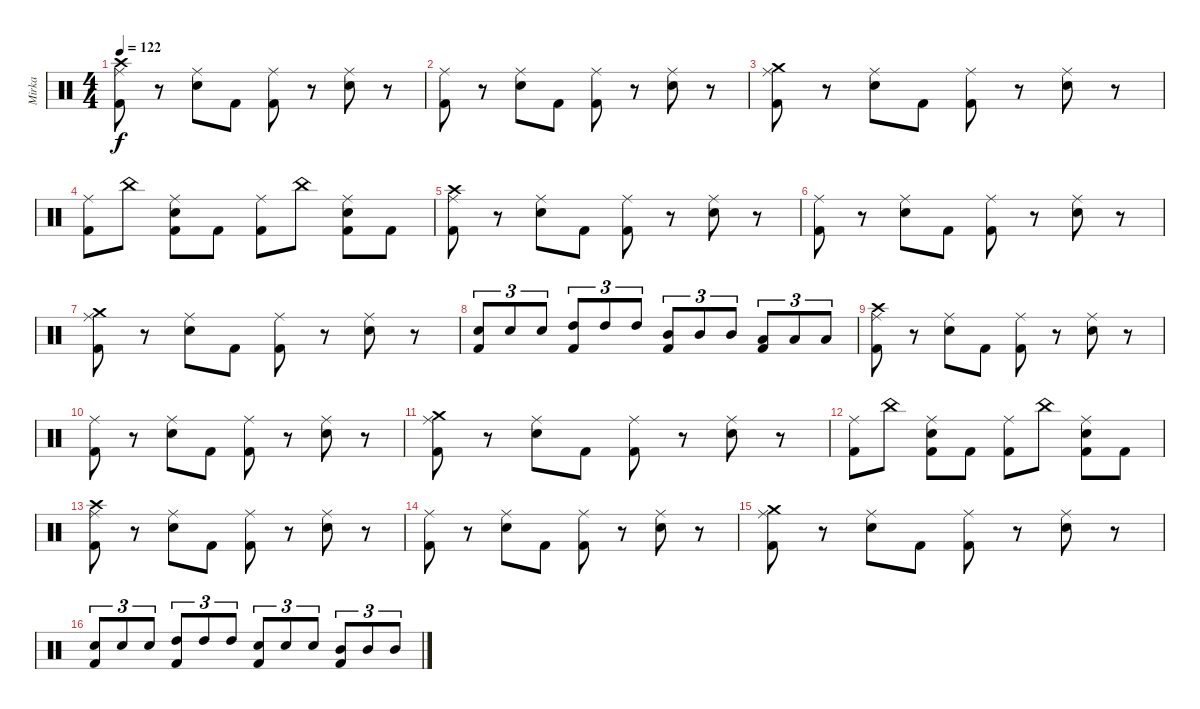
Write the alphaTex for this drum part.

\track ("Mirka" "Mirka") {instrument percussion}
\staff {score}
\articulation defaults
\ts (4 4)
\tempo 122
\clef neutral
\ks c
("Crash high (hit)" "Ride (middle)" "Kick (hit) 2").8{dy f} r.8 ("Ride (middle)" "Electric Snare (hit)").8 "Kick (hit) 2".8 ("Ride (middle)" "Kick (hit) 2").8 r.8 ("Ride (middle)" "Electric Snare (hit)").8 r.8 |
("Ride (middle)" "Kick (hit) 2").8 r.8 ("Ride (middle)" "Electric Snare (hit)").8 "Kick (hit) 2".8 ("Ride (middle)" "Kick (hit) 2").8 r.8 ("Ride (middle)" "Electric Snare (hit)").8 r.8 |
("Crash medium (hit)" "Ride (middle)" "Kick (hit) 2").8 r.8 ("Ride (middle)" "Electric Snare (hit)").8 "Kick (hit) 2".8 ("Ride (middle)" "Kick (hit) 2").8 r.8 ("Ride (middle)" "Electric Snare (hit)").8 r.8 |
("Ride (middle)" "Kick (hit) 2").8 "China (hit)".8 ("Ride (middle)" "Electric Snare (hit)" "Kick (hit) 2").8 "Kick (hit) 2".8 ("Ride (middle)" "Kick (hit) 2").8 "China (hit)".8 ("Ride (middle)" "Electric Snare (hit)" "Kick (hit) 2").8 "Kick (hit) 2".8 |
("Crash high (hit)" "Ride (middle)" "Kick (hit) 2").8 r.8 ("Ride (middle)" "Electric Snare (hit)").8 "Kick (hit) 2".8 ("Ride (middle)" "Kick (hit) 2").8 r.8 ("Ride (middle)" "Electric Snare (hit)").8 r.8 |
("Ride (middle)" "Kick (hit) 2").8 r.8 ("Ride (middle)" "Electric Snare (hit)").8 "Kick (hit) 2".8 ("Ride (middle)" "Kick (hit) 2").8 r.8 ("Ride (middle)" "Electric Snare (hit)").8 r.8 |
("Crash medium (hit)" "Ride (middle)" "Kick (hit) 2").8 r.8 ("Ride (middle)" "Electric Snare (hit)").8 "Kick (hit) 2".8 ("Ride (middle)" "Kick (hit) 2").8 r.8 ("Ride (middle)" "Electric Snare (hit)").8 r.8 |
("Electric Snare (hit)" "Kick (hit) 2").8{tu (3 2)} "Electric Snare (hit)".8{tu (3 2)} "Electric Snare (hit)".8{tu (3 2)} ("High Tom (hit)" "Kick (hit) 2").8{tu (3 2)} "High Tom (hit)".8{tu (3 2)} "High Tom (hit)".8{tu (3 2)} ("Mid Tom (hit)" "Kick (hit) 2").8{tu (3 2)} "Mid Tom (hit)".8{tu (3 2)} "Mid Tom (hit)".8{tu (3 2)} ("Low Tom (hit)" "Kick (hit) 2").8{tu (3 2)} "Low Tom (hit)".8{tu (3 2)} "Low Tom (hit)".8{tu (3 2)} |
("Crash high (hit)" "Ride (middle)" "Kick (hit) 2").8 r.8 ("Ride (middle)" "Electric Snare (hit)").8 "Kick (hit) 2".8 ("Ride (middle)" "Kick (hit) 2").8 r.8 ("Ride (middle)" "Electric Snare (hit)").8 r.8 |
("Ride (middle)" "Kick (hit) 2").8 r.8 ("Ride (middle)" "Electric Snare (hit)").8 "Kick (hit) 2".8 ("Ride (middle)" "Kick (hit) 2").8 r.8 ("Ride (middle)" "Electric Snare (hit)").8 r.8 |
("Crash medium (hit)" "Ride (middle)" "Kick (hit) 2").8 r.8 ("Ride (middle)" "Electric Snare (hit)").8 "Kick (hit) 2".8 ("Ride (middle)" "Kick (hit) 2").8 r.8 ("Ride (middle)" "Electric Snare (hit)").8 r.8 |
("Ride (middle)" "Kick (hit) 2").8 "China (hit)".8 ("Ride (middle)" "Electric Snare (hit)" "Kick (hit) 2").8 "Kick (hit) 2".8 ("Ride (middle)" "Kick (hit) 2").8 "China (hit)".8 ("Ride (middle)" "Electric Snare (hit)" "Kick (hit) 2").8 "Kick (hit) 2".8 |
("Crash high (hit)" "Ride (middle)" "Kick (hit) 2").8 r.8 ("Ride (middle)" "Electric Snare (hit)").8 "Kick (hit) 2".8 ("Ride (middle)" "Kick (hit) 2").8 r.8 ("Ride (middle)" "Electric Snare (hit)").8 r.8 |
("Ride (middle)" "Kick (hit) 2").8 r.8 ("Ride (middle)" "Electric Snare (hit)").8 "Kick (hit) 2".8 ("Ride (middle)" "Kick (hit) 2").8 r.8 ("Ride (middle)" "Electric Snare (hit)").8 r.8 |
("Crash medium (hit)" "Ride (middle)" "Kick (hit) 2").8 r.8 ("Ride (middle)" "Electric Snare (hit)").8 "Kick (hit) 2".8 ("Ride (middle)" "Kick (hit) 2").8 r.8 ("Ride (middle)" "Electric Snare (hit)").8 r.8 |
("Electric Snare (hit)" "Kick (hit) 2").8{tu (3 2)} "Electric Snare (hit)".8{tu (3 2)} "Electric Snare (hit)".8{tu (3 2)} ("High Tom (hit)" "Kick (hit) 2").8{tu (3 2)} "High Tom (hit)".8{tu (3 2)} "High Tom (hit)".8{tu (3 2)} ("Electric Snare (hit)" "Kick (hit) 2").8{tu (3 2)} "Electric Snare (hit)".8{tu (3 2)} "Electric Snare (hit)".8{tu (3 2)} ("Mid Tom (hit)" "Kick (hit) 2").8{tu (3 2)} "Mid Tom (hit)".8{tu (3 2)} "Mid Tom (hit)".8{tu (3 2)}
